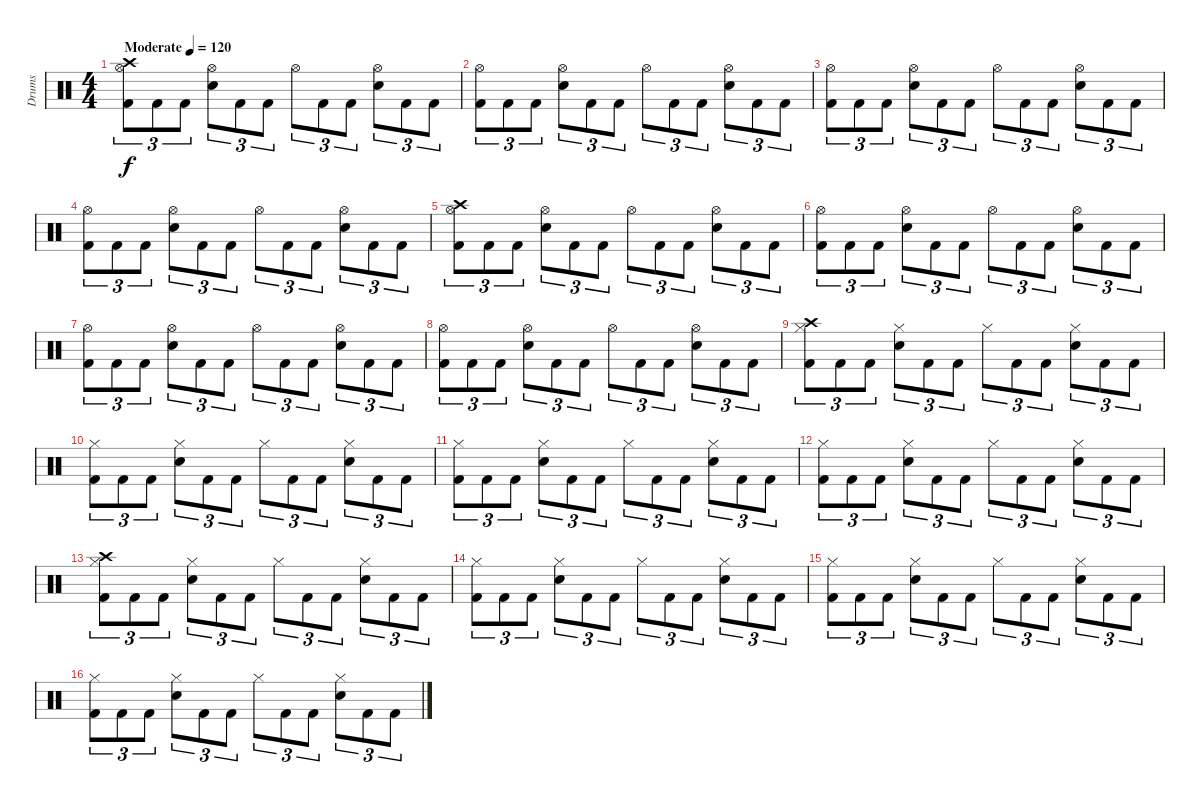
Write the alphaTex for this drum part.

\track ("Drums" "Drums") {instrument percussion}
\staff {score}
\articulation defaults
\ts (4 4)
\tempo (120 "Moderate")
\clef neutral
\ks c
("Kick (hit) 2" "Hi-Hat (open)" "Crash high (hit)").8{tu (3 2) dy f} "Kick (hit) 2".8{tu (3 2)} "Kick (hit) 2".8{tu (3 2)} ("Snare (hit) 2" "Hi-Hat (open)").8{tu (3 2)} "Kick (hit) 2".8{tu (3 2)} "Kick (hit) 2".8{tu (3 2)} "Hi-Hat (open)".8{tu (3 2)} "Kick (hit) 2".8{tu (3 2)} "Kick (hit) 2".8{tu (3 2)} ("Snare (hit) 2" "Hi-Hat (open)").8{tu (3 2)} "Kick (hit) 2".8{tu (3 2)} "Kick (hit) 2".8{tu (3 2)} |
("Kick (hit) 2" "Hi-Hat (open)").8{tu (3 2)} "Kick (hit) 2".8{tu (3 2)} "Kick (hit) 2".8{tu (3 2)} ("Snare (hit) 2" "Hi-Hat (open)").8{tu (3 2)} "Kick (hit) 2".8{tu (3 2)} "Kick (hit) 2".8{tu (3 2)} "Hi-Hat (open)".8{tu (3 2)} "Kick (hit) 2".8{tu (3 2)} "Kick (hit) 2".8{tu (3 2)} ("Snare (hit) 2" "Hi-Hat (open)").8{tu (3 2)} "Kick (hit) 2".8{tu (3 2)} "Kick (hit) 2".8{tu (3 2)} |
("Kick (hit) 2" "Hi-Hat (open)").8{tu (3 2)} "Kick (hit) 2".8{tu (3 2)} "Kick (hit) 2".8{tu (3 2)} ("Snare (hit) 2" "Hi-Hat (open)").8{tu (3 2)} "Kick (hit) 2".8{tu (3 2)} "Kick (hit) 2".8{tu (3 2)} "Hi-Hat (open)".8{tu (3 2)} "Kick (hit) 2".8{tu (3 2)} "Kick (hit) 2".8{tu (3 2)} ("Snare (hit) 2" "Hi-Hat (open)").8{tu (3 2)} "Kick (hit) 2".8{tu (3 2)} "Kick (hit) 2".8{tu (3 2)} |
("Kick (hit) 2" "Hi-Hat (open)").8{tu (3 2)} "Kick (hit) 2".8{tu (3 2)} "Kick (hit) 2".8{tu (3 2)} ("Snare (hit) 2" "Hi-Hat (open)").8{tu (3 2)} "Kick (hit) 2".8{tu (3 2)} "Kick (hit) 2".8{tu (3 2)} "Hi-Hat (open)".8{tu (3 2)} "Kick (hit) 2".8{tu (3 2)} "Kick (hit) 2".8{tu (3 2)} ("Snare (hit) 2" "Hi-Hat (open)").8{tu (3 2)} "Kick (hit) 2".8{tu (3 2)} "Kick (hit) 2".8{tu (3 2)} |
("Kick (hit) 2" "Hi-Hat (open)" "Crash high (hit)").8{tu (3 2)} "Kick (hit) 2".8{tu (3 2)} "Kick (hit) 2".8{tu (3 2)} ("Snare (hit) 2" "Hi-Hat (open)").8{tu (3 2)} "Kick (hit) 2".8{tu (3 2)} "Kick (hit) 2".8{tu (3 2)} "Hi-Hat (open)".8{tu (3 2)} "Kick (hit) 2".8{tu (3 2)} "Kick (hit) 2".8{tu (3 2)} ("Snare (hit) 2" "Hi-Hat (open)").8{tu (3 2)} "Kick (hit) 2".8{tu (3 2)} "Kick (hit) 2".8{tu (3 2)} |
("Kick (hit) 2" "Hi-Hat (open)").8{tu (3 2)} "Kick (hit) 2".8{tu (3 2)} "Kick (hit) 2".8{tu (3 2)} ("Snare (hit) 2" "Hi-Hat (open)").8{tu (3 2)} "Kick (hit) 2".8{tu (3 2)} "Kick (hit) 2".8{tu (3 2)} "Hi-Hat (open)".8{tu (3 2)} "Kick (hit) 2".8{tu (3 2)} "Kick (hit) 2".8{tu (3 2)} ("Snare (hit) 2" "Hi-Hat (open)").8{tu (3 2)} "Kick (hit) 2".8{tu (3 2)} "Kick (hit) 2".8{tu (3 2)} |
("Kick (hit) 2" "Hi-Hat (open)").8{tu (3 2)} "Kick (hit) 2".8{tu (3 2)} "Kick (hit) 2".8{tu (3 2)} ("Snare (hit) 2" "Hi-Hat (open)").8{tu (3 2)} "Kick (hit) 2".8{tu (3 2)} "Kick (hit) 2".8{tu (3 2)} "Hi-Hat (open)".8{tu (3 2)} "Kick (hit) 2".8{tu (3 2)} "Kick (hit) 2".8{tu (3 2)} ("Snare (hit) 2" "Hi-Hat (open)").8{tu (3 2)} "Kick (hit) 2".8{tu (3 2)} "Kick (hit) 2".8{tu (3 2)} |
("Kick (hit) 2" "Hi-Hat (open)").8{tu (3 2)} "Kick (hit) 2".8{tu (3 2)} "Kick (hit) 2".8{tu (3 2)} ("Snare (hit) 2" "Hi-Hat (open)").8{tu (3 2)} "Kick (hit) 2".8{tu (3 2)} "Kick (hit) 2".8{tu (3 2)} "Hi-Hat (open)".8{tu (3 2)} "Kick (hit) 2".8{tu (3 2)} "Kick (hit) 2".8{tu (3 2)} ("Snare (hit) 2" "Hi-Hat (open)").8{tu (3 2)} "Kick (hit) 2".8{tu (3 2)} "Kick (hit) 2".8{tu (3 2)} |
("Kick (hit) 2" "Hi-Hat (closed)" "Crash high (hit)").8{tu (3 2)} "Kick (hit) 2".8{tu (3 2)} "Kick (hit) 2".8{tu (3 2)} ("Snare (hit) 2" "Hi-Hat (closed)").8{tu (3 2)} "Kick (hit) 2".8{tu (3 2)} "Kick (hit) 2".8{tu (3 2)} "Hi-Hat (closed)".8{tu (3 2)} "Kick (hit) 2".8{tu (3 2)} "Kick (hit) 2".8{tu (3 2)} ("Snare (hit) 2" "Hi-Hat (closed)").8{tu (3 2)} "Kick (hit) 2".8{tu (3 2)} "Kick (hit) 2".8{tu (3 2)} |
("Kick (hit) 2" "Hi-Hat (closed)").8{tu (3 2)} "Kick (hit) 2".8{tu (3 2)} "Kick (hit) 2".8{tu (3 2)} ("Snare (hit) 2" "Hi-Hat (closed)").8{tu (3 2)} "Kick (hit) 2".8{tu (3 2)} "Kick (hit) 2".8{tu (3 2)} "Hi-Hat (closed)".8{tu (3 2)} "Kick (hit) 2".8{tu (3 2)} "Kick (hit) 2".8{tu (3 2)} ("Snare (hit) 2" "Hi-Hat (closed)").8{tu (3 2)} "Kick (hit) 2".8{tu (3 2)} "Kick (hit) 2".8{tu (3 2)} |
("Kick (hit) 2" "Hi-Hat (closed)").8{tu (3 2)} "Kick (hit) 2".8{tu (3 2)} "Kick (hit) 2".8{tu (3 2)} ("Snare (hit) 2" "Hi-Hat (closed)").8{tu (3 2)} "Kick (hit) 2".8{tu (3 2)} "Kick (hit) 2".8{tu (3 2)} "Hi-Hat (closed)".8{tu (3 2)} "Kick (hit) 2".8{tu (3 2)} "Kick (hit) 2".8{tu (3 2)} ("Snare (hit) 2" "Hi-Hat (closed)").8{tu (3 2)} "Kick (hit) 2".8{tu (3 2)} "Kick (hit) 2".8{tu (3 2)} |
("Kick (hit) 2" "Hi-Hat (closed)").8{tu (3 2)} "Kick (hit) 2".8{tu (3 2)} "Kick (hit) 2".8{tu (3 2)} ("Snare (hit) 2" "Hi-Hat (closed)").8{tu (3 2)} "Kick (hit) 2".8{tu (3 2)} "Kick (hit) 2".8{tu (3 2)} "Hi-Hat (closed)".8{tu (3 2)} "Kick (hit) 2".8{tu (3 2)} "Kick (hit) 2".8{tu (3 2)} ("Snare (hit) 2" "Hi-Hat (closed)").8{tu (3 2)} "Kick (hit) 2".8{tu (3 2)} "Kick (hit) 2".8{tu (3 2)} |
("Kick (hit) 2" "Hi-Hat (closed)" "Crash high (hit)").8{tu (3 2)} "Kick (hit) 2".8{tu (3 2)} "Kick (hit) 2".8{tu (3 2)} ("Snare (hit) 2" "Hi-Hat (closed)").8{tu (3 2)} "Kick (hit) 2".8{tu (3 2)} "Kick (hit) 2".8{tu (3 2)} "Hi-Hat (closed)".8{tu (3 2)} "Kick (hit) 2".8{tu (3 2)} "Kick (hit) 2".8{tu (3 2)} ("Snare (hit) 2" "Hi-Hat (closed)").8{tu (3 2)} "Kick (hit) 2".8{tu (3 2)} "Kick (hit) 2".8{tu (3 2)} |
("Kick (hit) 2" "Hi-Hat (closed)").8{tu (3 2)} "Kick (hit) 2".8{tu (3 2)} "Kick (hit) 2".8{tu (3 2)} ("Snare (hit) 2" "Hi-Hat (closed)").8{tu (3 2)} "Kick (hit) 2".8{tu (3 2)} "Kick (hit) 2".8{tu (3 2)} "Hi-Hat (closed)".8{tu (3 2)} "Kick (hit) 2".8{tu (3 2)} "Kick (hit) 2".8{tu (3 2)} ("Snare (hit) 2" "Hi-Hat (closed)").8{tu (3 2)} "Kick (hit) 2".8{tu (3 2)} "Kick (hit) 2".8{tu (3 2)} |
("Kick (hit) 2" "Hi-Hat (closed)").8{tu (3 2)} "Kick (hit) 2".8{tu (3 2)} "Kick (hit) 2".8{tu (3 2)} ("Snare (hit) 2" "Hi-Hat (closed)").8{tu (3 2)} "Kick (hit) 2".8{tu (3 2)} "Kick (hit) 2".8{tu (3 2)} "Hi-Hat (closed)".8{tu (3 2)} "Kick (hit) 2".8{tu (3 2)} "Kick (hit) 2".8{tu (3 2)} ("Snare (hit) 2" "Hi-Hat (closed)").8{tu (3 2)} "Kick (hit) 2".8{tu (3 2)} "Kick (hit) 2".8{tu (3 2)} |
("Kick (hit) 2" "Hi-Hat (closed)").8{tu (3 2)} "Kick (hit) 2".8{tu (3 2)} "Kick (hit) 2".8{tu (3 2)} ("Snare (hit) 2" "Hi-Hat (closed)").8{tu (3 2)} "Kick (hit) 2".8{tu (3 2)} "Kick (hit) 2".8{tu (3 2)} "Hi-Hat (closed)".8{tu (3 2)} "Kick (hit) 2".8{tu (3 2)} "Kick (hit) 2".8{tu (3 2)} ("Snare (hit) 2" "Hi-Hat (closed)").8{tu (3 2)} "Kick (hit) 2".8{tu (3 2)} "Kick (hit) 2".8{tu (3 2)}
